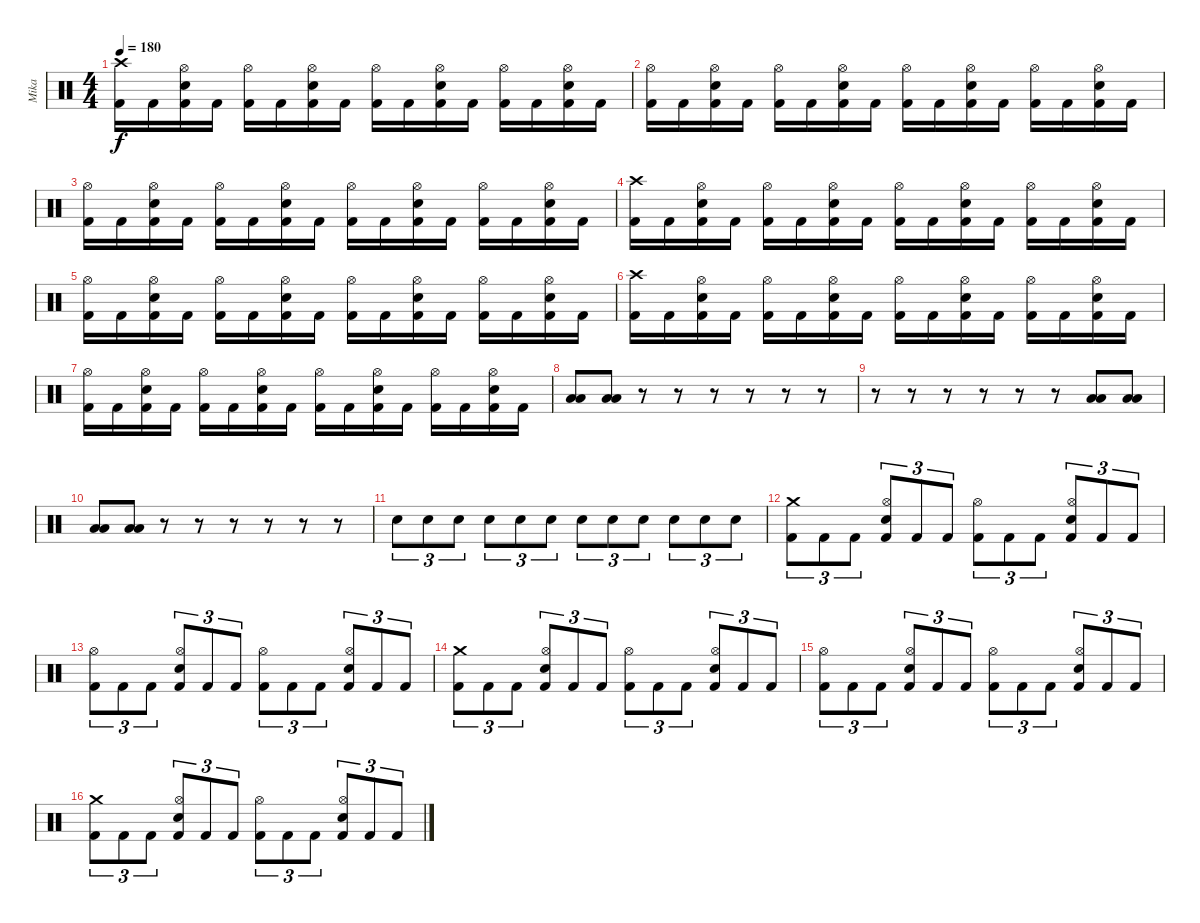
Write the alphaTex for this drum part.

\track ("Mika" "Mika") {instrument percussion}
\staff {score}
\articulation defaults
\ts (4 4)
\tempo 180
\clef neutral
\ks c
("Crash high (hit)" "Kick (hit) 2").16{dy f} "Kick (hit) 2".16 ("Hi-Hat (open)" "Electric Snare (hit)" "Kick (hit) 2").16 "Kick (hit) 2".16 ("Hi-Hat (open)" "Kick (hit) 2").16 "Kick (hit) 2".16 ("Hi-Hat (open)" "Electric Snare (hit)" "Kick (hit) 2").16 "Kick (hit) 2".16 ("Hi-Hat (open)" "Kick (hit) 2").16 "Kick (hit) 2".16 ("Hi-Hat (open)" "Electric Snare (hit)" "Kick (hit) 2").16 "Kick (hit) 2".16 ("Hi-Hat (open)" "Kick (hit) 2").16 "Kick (hit) 2".16 ("Hi-Hat (open)" "Electric Snare (hit)" "Kick (hit) 2").16 "Kick (hit) 2".16 |
("Hi-Hat (open)" "Kick (hit) 2").16 "Kick (hit) 2".16 ("Hi-Hat (open)" "Electric Snare (hit)" "Kick (hit) 2").16 "Kick (hit) 2".16 ("Hi-Hat (open)" "Kick (hit) 2").16 "Kick (hit) 2".16 ("Hi-Hat (open)" "Electric Snare (hit)" "Kick (hit) 2").16 "Kick (hit) 2".16 ("Hi-Hat (open)" "Kick (hit) 2").16 "Kick (hit) 2".16 ("Hi-Hat (open)" "Electric Snare (hit)" "Kick (hit) 2").16 "Kick (hit) 2".16 ("Hi-Hat (open)" "Kick (hit) 2").16 "Kick (hit) 2".16 ("Hi-Hat (open)" "Electric Snare (hit)" "Kick (hit) 2").16 "Kick (hit) 2".16 |
("Hi-Hat (open)" "Kick (hit) 2").16 "Kick (hit) 2".16 ("Hi-Hat (open)" "Electric Snare (hit)" "Kick (hit) 2").16 "Kick (hit) 2".16 ("Hi-Hat (open)" "Kick (hit) 2").16 "Kick (hit) 2".16 ("Hi-Hat (open)" "Electric Snare (hit)" "Kick (hit) 2").16 "Kick (hit) 2".16 ("Hi-Hat (open)" "Kick (hit) 2").16 "Kick (hit) 2".16 ("Hi-Hat (open)" "Electric Snare (hit)" "Kick (hit) 2").16 "Kick (hit) 2".16 ("Hi-Hat (open)" "Kick (hit) 2").16 "Kick (hit) 2".16 ("Hi-Hat (open)" "Electric Snare (hit)" "Kick (hit) 2").16 "Kick (hit) 2".16 |
("Crash high (hit)" "Kick (hit) 2").16 "Kick (hit) 2".16 ("Hi-Hat (open)" "Electric Snare (hit)" "Kick (hit) 2").16 "Kick (hit) 2".16 ("Hi-Hat (open)" "Kick (hit) 2").16 "Kick (hit) 2".16 ("Hi-Hat (open)" "Electric Snare (hit)" "Kick (hit) 2").16 "Kick (hit) 2".16 ("Hi-Hat (open)" "Kick (hit) 2").16 "Kick (hit) 2".16 ("Hi-Hat (open)" "Electric Snare (hit)" "Kick (hit) 2").16 "Kick (hit) 2".16 ("Hi-Hat (open)" "Kick (hit) 2").16 "Kick (hit) 2".16 ("Hi-Hat (open)" "Electric Snare (hit)" "Kick (hit) 2").16 "Kick (hit) 2".16 |
("Hi-Hat (open)" "Kick (hit) 2").16 "Kick (hit) 2".16 ("Hi-Hat (open)" "Electric Snare (hit)" "Kick (hit) 2").16 "Kick (hit) 2".16 ("Hi-Hat (open)" "Kick (hit) 2").16 "Kick (hit) 2".16 ("Hi-Hat (open)" "Electric Snare (hit)" "Kick (hit) 2").16 "Kick (hit) 2".16 ("Hi-Hat (open)" "Kick (hit) 2").16 "Kick (hit) 2".16 ("Hi-Hat (open)" "Electric Snare (hit)" "Kick (hit) 2").16 "Kick (hit) 2".16 ("Hi-Hat (open)" "Kick (hit) 2").16 "Kick (hit) 2".16 ("Hi-Hat (open)" "Electric Snare (hit)" "Kick (hit) 2").16 "Kick (hit) 2".16 |
("Crash high (hit)" "Kick (hit) 2").16 "Kick (hit) 2".16 ("Hi-Hat (open)" "Electric Snare (hit)" "Kick (hit) 2").16 "Kick (hit) 2".16 ("Hi-Hat (open)" "Kick (hit) 2").16 "Kick (hit) 2".16 ("Hi-Hat (open)" "Electric Snare (hit)" "Kick (hit) 2").16 "Kick (hit) 2".16 ("Hi-Hat (open)" "Kick (hit) 2").16 "Kick (hit) 2".16 ("Hi-Hat (open)" "Electric Snare (hit)" "Kick (hit) 2").16 "Kick (hit) 2".16 ("Hi-Hat (open)" "Kick (hit) 2").16 "Kick (hit) 2".16 ("Hi-Hat (open)" "Electric Snare (hit)" "Kick (hit) 2").16 "Kick (hit) 2".16 |
("Hi-Hat (open)" "Kick (hit) 2").16 "Kick (hit) 2".16 ("Hi-Hat (open)" "Electric Snare (hit)" "Kick (hit) 2").16 "Kick (hit) 2".16 ("Hi-Hat (open)" "Kick (hit) 2").16 "Kick (hit) 2".16 ("Hi-Hat (open)" "Electric Snare (hit)" "Kick (hit) 2").16 "Kick (hit) 2".16 ("Hi-Hat (open)" "Kick (hit) 2").16 "Kick (hit) 2".16 ("Hi-Hat (open)" "Electric Snare (hit)" "Kick (hit) 2").16 "Kick (hit) 2".16 ("Hi-Hat (open)" "Kick (hit) 2").16 "Kick (hit) 2".16 ("Hi-Hat (open)" "Electric Snare (hit)" "Kick (hit) 2").16 "Kick (hit) 2".16 |
("Low Tom (hit)" "Low Floor Tom (hit)").8 ("Low Floor Tom (hit)" "Low Tom (hit)").8 r.8 r.8 r.8 r.8 r.8 r.8 |
r.8 r.8 r.8 r.8 r.8 r.8 ("Low Tom (hit)" "Low Floor Tom (hit)").8 ("Low Floor Tom (hit)" "Low Tom (hit)").8 |
("Low Tom (hit)" "Low Floor Tom (hit)").8 ("Low Floor Tom (hit)" "Low Tom (hit)").8 r.8 r.8 r.8 r.8 r.8 r.8 |
"Electric Snare (hit)".8{tu (3 2)} "Electric Snare (hit)".8{tu (3 2)} "Electric Snare (hit)".8{tu (3 2)} "Electric Snare (hit)".8{tu (3 2)} "Electric Snare (hit)".8{tu (3 2)} "Electric Snare (hit)".8{tu (3 2)} "Electric Snare (hit)".8{tu (3 2)} "Electric Snare (hit)".8{tu (3 2)} "Electric Snare (hit)".8{tu (3 2)} "Electric Snare (hit)".8{tu (3 2)} "Electric Snare (hit)".8{tu (3 2)} "Electric Snare (hit)".8{tu (3 2)} |
("Crash medium (hit)" "Kick (hit) 2").8{tu (3 2)} "Kick (hit) 2".8{tu (3 2)} "Kick (hit) 2".8{tu (3 2)} ("Hi-Hat (open)" "Electric Snare (hit)" "Kick (hit) 2").8{tu (3 2)} "Kick (hit) 2".8{tu (3 2)} "Kick (hit) 2".8{tu (3 2)} ("Hi-Hat (open)" "Kick (hit) 2").8{tu (3 2)} "Kick (hit) 2".8{tu (3 2)} "Kick (hit) 2".8{tu (3 2)} ("Hi-Hat (open)" "Electric Snare (hit)" "Kick (hit) 2").8{tu (3 2)} "Kick (hit) 2".8{tu (3 2)} "Kick (hit) 2".8{tu (3 2)} |
("Hi-Hat (open)" "Kick (hit) 2").8{tu (3 2)} "Kick (hit) 2".8{tu (3 2)} "Kick (hit) 2".8{tu (3 2)} ("Hi-Hat (open)" "Electric Snare (hit)" "Kick (hit) 2").8{tu (3 2)} "Kick (hit) 2".8{tu (3 2)} "Kick (hit) 2".8{tu (3 2)} ("Hi-Hat (open)" "Kick (hit) 2").8{tu (3 2)} "Kick (hit) 2".8{tu (3 2)} "Kick (hit) 2".8{tu (3 2)} ("Hi-Hat (open)" "Electric Snare (hit)" "Kick (hit) 2").8{tu (3 2)} "Kick (hit) 2".8{tu (3 2)} "Kick (hit) 2".8{tu (3 2)} |
("Crash medium (hit)" "Kick (hit) 2").8{tu (3 2)} "Kick (hit) 2".8{tu (3 2)} "Kick (hit) 2".8{tu (3 2)} ("Hi-Hat (open)" "Electric Snare (hit)" "Kick (hit) 2").8{tu (3 2)} "Kick (hit) 2".8{tu (3 2)} "Kick (hit) 2".8{tu (3 2)} ("Hi-Hat (open)" "Kick (hit) 2").8{tu (3 2)} "Kick (hit) 2".8{tu (3 2)} "Kick (hit) 2".8{tu (3 2)} ("Hi-Hat (open)" "Electric Snare (hit)" "Kick (hit) 2").8{tu (3 2)} "Kick (hit) 2".8{tu (3 2)} "Kick (hit) 2".8{tu (3 2)} |
("Hi-Hat (open)" "Kick (hit) 2").8{tu (3 2)} "Kick (hit) 2".8{tu (3 2)} "Kick (hit) 2".8{tu (3 2)} ("Hi-Hat (open)" "Electric Snare (hit)" "Kick (hit) 2").8{tu (3 2)} "Kick (hit) 2".8{tu (3 2)} "Kick (hit) 2".8{tu (3 2)} ("Hi-Hat (open)" "Kick (hit) 2").8{tu (3 2)} "Kick (hit) 2".8{tu (3 2)} "Kick (hit) 2".8{tu (3 2)} ("Hi-Hat (open)" "Electric Snare (hit)" "Kick (hit) 2").8{tu (3 2)} "Kick (hit) 2".8{tu (3 2)} "Kick (hit) 2".8{tu (3 2)} |
("Crash medium (hit)" "Kick (hit) 2").8{tu (3 2)} "Kick (hit) 2".8{tu (3 2)} "Kick (hit) 2".8{tu (3 2)} ("Hi-Hat (open)" "Electric Snare (hit)" "Kick (hit) 2").8{tu (3 2)} "Kick (hit) 2".8{tu (3 2)} "Kick (hit) 2".8{tu (3 2)} ("Hi-Hat (open)" "Kick (hit) 2").8{tu (3 2)} "Kick (hit) 2".8{tu (3 2)} "Kick (hit) 2".8{tu (3 2)} ("Hi-Hat (open)" "Electric Snare (hit)" "Kick (hit) 2").8{tu (3 2)} "Kick (hit) 2".8{tu (3 2)} "Kick (hit) 2".8{tu (3 2)}
